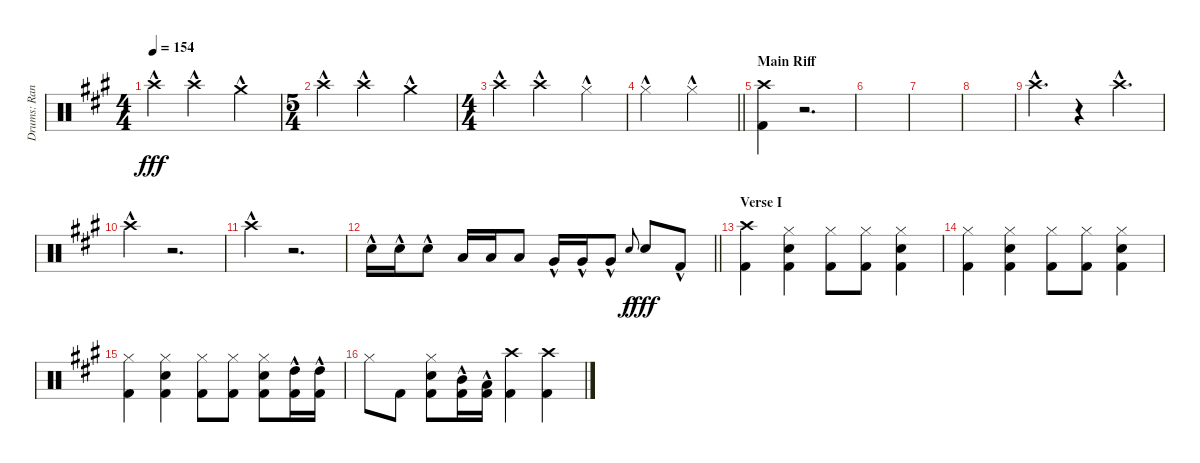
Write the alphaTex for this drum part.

\track ("Drums: Randy" "Drums: Ran") {instrument percussion}
\staff {score}
\articulation defaults
\ts (4 4)
\tempo 154
\clef neutral
\ks a "Crash high (hit)"{hac}.4{dy fff} "Crash high (hit)"{hac}.2 "Crash medium (hit)"{hac}.4
|
\ts (5 4)
"Crash high (hit)"{hac}.4 "Crash high (hit)"{hac}.2 "Crash medium (hit)"{hac}.2 |
\ts (4 4)
"Crash high (hit)"{hac}.4 "Crash high (hit)"{hac}.2 "Hi-Hat (closed)"{hac}.4 |
\barLineRight lightlight "Hi-Hat (closed)"{hac}.2 "Hi-Hat (closed)"{hac}.2
|
\section ("" "Main Riff")
("Crash high (hit)" "Kick (hit) 2").4 r.2{d} |
|
|
|
"Crash high (hit)"{hac}.4{d} r.4 "Crash high (hit)"{hac}.4{d} |
"Crash high (hit)"{hac}.4 r.2{d} |
"Crash high (hit)"{hac}.4 r.2{d} |
\barLineRight lightlight "Snare (hit) 2"{hac}.16 "Snare (hit) 2"{hac}.16 "Snare (hit) 2"{hac}.8 "Low Tom (hit)".16 "Low Tom (hit)".16 "Low Tom (hit)".8 "Very Low Tom (hit)"{hac}.16 "Very Low Tom (hit)"{hac}.16 "Very Low Tom (hit)"{hac}.8 "Electric Snare (hit)".8{gr onbeat dy f} "Snare (hit) 2".8{dy fff} "Kick (hit) 2"{hac}.8
|
\section ("" "Verse I")
("Crash high (hit)" "Kick (hit) 2").4 ("Hi-Hat (closed)" "Snare (hit) 2" "Kick (hit) 2").4 ("Hi-Hat (closed)" "Kick (hit) 2").8 ("Hi-Hat (closed)" "Kick (hit) 2").8 ("Hi-Hat (closed)" "Snare (hit) 2" "Kick (hit) 2").4 |
("Hi-Hat (closed)" "Kick (hit) 2").4 ("Hi-Hat (closed)" "Snare (hit) 2" "Kick (hit) 2").4 ("Hi-Hat (closed)" "Kick (hit) 2").8 ("Hi-Hat (closed)" "Kick (hit) 2").8 ("Hi-Hat (closed)" "Snare (hit) 2" "Kick (hit) 2").4 |
("Hi-Hat (closed)" "Kick (hit) 2").4 ("Hi-Hat (closed)" "Snare (hit) 2" "Kick (hit) 2").4 ("Hi-Hat (closed)" "Kick (hit) 2").8 ("Hi-Hat (closed)" "Kick (hit) 2").8 ("Hi-Hat (closed)" "Snare (hit) 2" "Kick (hit) 2").8 ("High Tom (hit)"{hac} "Kick (hit) 2"{hac}).16 ("High Tom (hit)"{hac} "Kick (hit) 2"{hac}).16 |
"Hi-Hat (closed)".8 "Kick (hit) 2".8 ("Hi-Hat (closed)" "Snare (hit) 2" "Kick (hit) 2").8 ("Mid Tom (hit)"{hac} "Kick (hit) 2"{hac}).16 ("Low Tom (hit)"{hac} "Kick (hit) 2"{hac}).16 ("Crash high (hit)" "Kick (hit) 2").4 ("Crash high (hit)" "Kick (hit) 2").4
